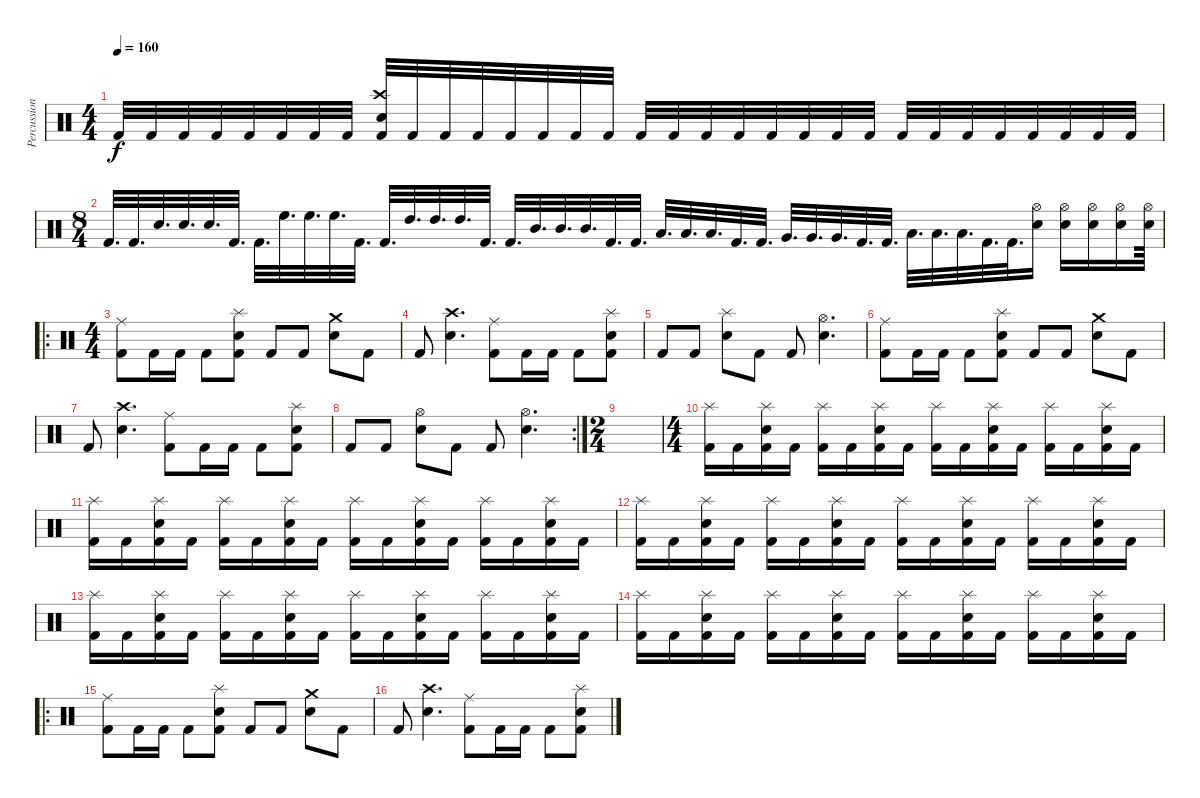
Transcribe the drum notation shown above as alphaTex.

\track ("Percussion" "Percussion") {instrument percussion}
\staff {score}
\articulation defaults
\ts (4 4)
\tempo 160
\clef neutral
\ks c "Kick (hit) 2".32{dy f} "Kick (hit) 2".32 "Kick (hit) 2".32 "Kick (hit) 2".32 "Kick (hit) 2".32 "Kick (hit) 2".32 "Kick (hit) 2".32 "Kick (hit) 2".32
("Crash high (hit)" "Snare (hit) 2" "Kick (hit) 2").32 "Kick (hit) 2".32 "Kick (hit) 2".32 "Kick (hit) 2".32 "Kick (hit) 2".32 "Kick (hit) 2".32 "Kick (hit) 2".32 "Kick (hit) 2".32 "Kick (hit) 2".32 "Kick (hit) 2".32 "Kick (hit) 2".32 "Kick (hit) 2".32 "Kick (hit) 2".32 "Kick (hit) 2".32 "Kick (hit) 2".32 "Kick (hit) 2".32 "Kick (hit) 2".32 "Kick (hit) 2".32 "Kick (hit) 2".32 "Kick (hit) 2".32 "Kick (hit) 2".32 "Kick (hit) 2".32 "Kick (hit) 2".32 "Kick (hit) 2".32 |
\ts (8 4)
"Kick (hit) 2".32{d} "Kick (hit) 2".32{d} "Snare (hit) 2".32{d} "Snare (hit) 2".32{d} "Snare (hit) 2".32{d} "Kick (hit) 2".32{d} "Kick (hit) 2".32{d} "High Floor Tom (hit)".32{d} "High Floor Tom (hit)".32{d} "High Floor Tom (hit)".32{d} "Kick (hit) 2".32{d} "Kick (hit) 2".32{d} "High Tom (hit)".32{d} "High Tom (hit)".32{d} "High Tom (hit)".32{d} "Kick (hit) 2".32{d} "Kick (hit) 2".32{d} "Mid Tom (hit)".32{d} "Mid Tom (hit)".32{d} "Mid Tom (hit)".32{d} "Kick (hit) 2".32{d} "Kick (hit) 2".32{d} "Low Tom (hit)".32{d} "Low Tom (hit)".32{d} "Low Tom (hit)".32{d} "Kick (hit) 2".32{d} "Kick (hit) 2".32{d} "Very Low Tom (hit)".32{d} "Very Low Tom (hit)".32{d} "Very Low Tom (hit)".32{d} "Kick (hit) 2".32{d} "Kick (hit) 2".32{d} "Low Floor Tom (hit)".32{d} "Low Floor Tom (hit)".32{d} "Low Floor Tom (hit)".32{d} "Kick (hit) 2".32{d} "Kick (hit) 2".32{d} ("Hi-Hat (open)" "Snare (hit) 2").16 ("Hi-Hat (open)" "Snare (hit) 2").16 ("Hi-Hat (open)" "Snare (hit) 2").16 ("Hi-Hat (open)" "Snare (hit) 2").16 ("Hi-Hat (open)" "Snare (hit) 2").64 |
\ro
\ts (4 4)
("Ride (middle)" "Kick (hit) 2").8 "Kick (hit) 2".16 "Kick (hit) 2".16 "Kick (hit) 2".8 ("Splash (hit)" "Snare (hit) 2" "Kick (hit) 2").8 "Kick (hit) 2".8 "Kick (hit) 2".8 ("Crash medium (hit)" "Snare (hit) 2").8 "Kick (hit) 2".8 |
"Kick (hit) 2".8 ("Crash high (hit)" "Snare (hit) 2").4{d} ("Ride (middle)" "Kick (hit) 2").8 "Kick (hit) 2".16 "Kick (hit) 2".16 "Kick (hit) 2".8 ("Splash (hit)" "Snare (hit) 2" "Kick (hit) 2").8 |
"Kick (hit) 2".8 "Kick (hit) 2".8 ("Splash (hit)" "Snare (hit) 2").8 "Kick (hit) 2".8 "Kick (hit) 2".8 ("Hi-Hat (open)" "Snare (hit) 2").4{d} |
("Ride (middle)" "Kick (hit) 2").8 "Kick (hit) 2".16 "Kick (hit) 2".16 "Kick (hit) 2".8 ("Splash (hit)" "Snare (hit) 2" "Kick (hit) 2").8 "Kick (hit) 2".8 "Kick (hit) 2".8 ("Crash medium (hit)" "Snare (hit) 2").8 "Kick (hit) 2".8 |
"Kick (hit) 2".8 ("Crash high (hit)" "Snare (hit) 2").4{d} ("Ride (middle)" "Kick (hit) 2").8 "Kick (hit) 2".16 "Kick (hit) 2".16 "Kick (hit) 2".8 ("Splash (hit)" "Snare (hit) 2" "Kick (hit) 2").8 |
\rc 2 "Kick (hit) 2".8 "Kick (hit) 2".8
("Hi-Hat (open)" "Snare (hit) 2").8 "Kick (hit) 2".8 "Kick (hit) 2".8 ("Hi-Hat (open)" "Snare (hit) 2").4{d} |
\ts (2 4)
|
\ts (4 4)
("Splash (hit)" "Kick (hit) 2").16 "Kick (hit) 2".16 ("Splash (hit)" "Snare (hit) 2" "Kick (hit) 2").16 "Kick (hit) 2".16 ("Splash (hit)" "Kick (hit) 2").16 "Kick (hit) 2".16 ("Splash (hit)" "Snare (hit) 2" "Kick (hit) 2").16 "Kick (hit) 2".16 ("Splash (hit)" "Kick (hit) 2").16 "Kick (hit) 2".16 ("Splash (hit)" "Snare (hit) 2" "Kick (hit) 2").16 "Kick (hit) 2".16 ("Splash (hit)" "Kick (hit) 2").16 "Kick (hit) 2".16 ("Splash (hit)" "Snare (hit) 2" "Kick (hit) 2").16 "Kick (hit) 2".16 |
("Splash (hit)" "Kick (hit) 2").16 "Kick (hit) 2".16 ("Splash (hit)" "Snare (hit) 2" "Kick (hit) 2").16 "Kick (hit) 2".16 ("Splash (hit)" "Kick (hit) 2").16 "Kick (hit) 2".16 ("Splash (hit)" "Snare (hit) 2" "Kick (hit) 2").16 "Kick (hit) 2".16 ("Splash (hit)" "Kick (hit) 2").16 "Kick (hit) 2".16 ("Splash (hit)" "Snare (hit) 2" "Kick (hit) 2").16 "Kick (hit) 2".16 ("Splash (hit)" "Kick (hit) 2").16 "Kick (hit) 2".16 ("Splash (hit)" "Snare (hit) 2" "Kick (hit) 2").16 "Kick (hit) 2".16 |
("Splash (hit)" "Kick (hit) 2").16 "Kick (hit) 2".16 ("Splash (hit)" "Snare (hit) 2" "Kick (hit) 2").16 "Kick (hit) 2".16 ("Splash (hit)" "Kick (hit) 2").16 "Kick (hit) 2".16 ("Splash (hit)" "Snare (hit) 2" "Kick (hit) 2").16 "Kick (hit) 2".16 ("Splash (hit)" "Kick (hit) 2").16 "Kick (hit) 2".16 ("Splash (hit)" "Snare (hit) 2" "Kick (hit) 2").16 "Kick (hit) 2".16 ("Splash (hit)" "Kick (hit) 2").16 "Kick (hit) 2".16 ("Splash (hit)" "Snare (hit) 2" "Kick (hit) 2").16 "Kick (hit) 2".16 |
("Splash (hit)" "Kick (hit) 2").16 "Kick (hit) 2".16 ("Splash (hit)" "Snare (hit) 2" "Kick (hit) 2").16 "Kick (hit) 2".16 ("Splash (hit)" "Kick (hit) 2").16 "Kick (hit) 2".16 ("Splash (hit)" "Snare (hit) 2" "Kick (hit) 2").16 "Kick (hit) 2".16 ("Splash (hit)" "Kick (hit) 2").16 "Kick (hit) 2".16 ("Splash (hit)" "Snare (hit) 2" "Kick (hit) 2").16 "Kick (hit) 2".16 ("Splash (hit)" "Kick (hit) 2").16 "Kick (hit) 2".16 ("Splash (hit)" "Snare (hit) 2" "Kick (hit) 2").16 "Kick (hit) 2".16 |
("Splash (hit)" "Kick (hit) 2").16 "Kick (hit) 2".16 ("Splash (hit)" "Snare (hit) 2" "Kick (hit) 2").16 "Kick (hit) 2".16 ("Splash (hit)" "Kick (hit) 2").16 "Kick (hit) 2".16 ("Splash (hit)" "Snare (hit) 2" "Kick (hit) 2").16 "Kick (hit) 2".16 ("Splash (hit)" "Kick (hit) 2").16 "Kick (hit) 2".16 ("Splash (hit)" "Snare (hit) 2" "Kick (hit) 2").16 "Kick (hit) 2".16 ("Splash (hit)" "Kick (hit) 2").16 "Kick (hit) 2".16 ("Splash (hit)" "Snare (hit) 2" "Kick (hit) 2").16 "Kick (hit) 2".16 |
\ro
("Ride (middle)" "Kick (hit) 2").8 "Kick (hit) 2".16 "Kick (hit) 2".16 "Kick (hit) 2".8 ("Splash (hit)" "Snare (hit) 2" "Kick (hit) 2").8 "Kick (hit) 2".8 "Kick (hit) 2".8 ("Crash medium (hit)" "Snare (hit) 2").8 "Kick (hit) 2".8 |
"Kick (hit) 2".8 ("Crash high (hit)" "Snare (hit) 2").4{d} ("Ride (middle)" "Kick (hit) 2").8 "Kick (hit) 2".16 "Kick (hit) 2".16 "Kick (hit) 2".8 ("Splash (hit)" "Snare (hit) 2" "Kick (hit) 2").8
